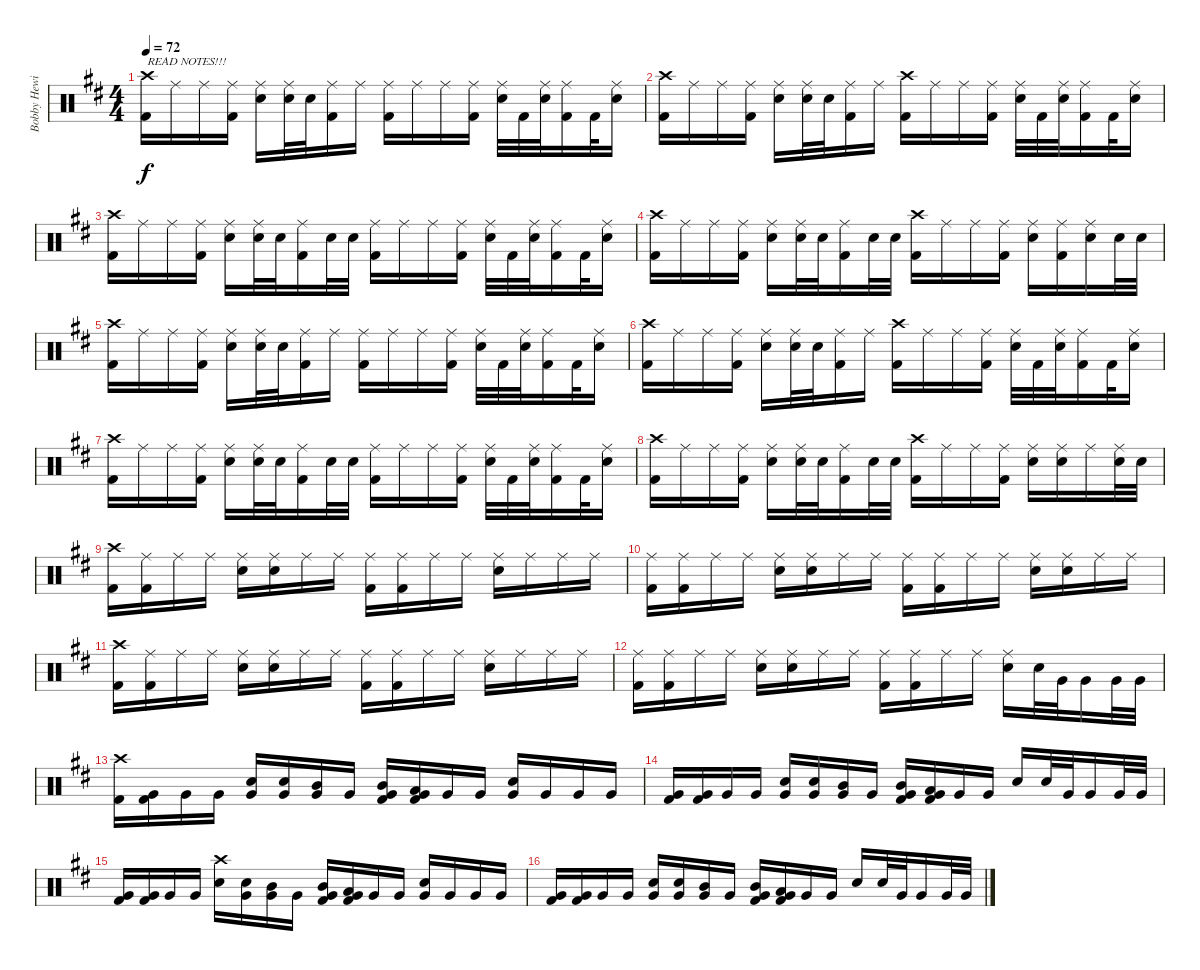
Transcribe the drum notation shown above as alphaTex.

\track ("Bobby Hewitt (Roland V-Drums)" "Bobby Hewi") {instrument percussion}
\staff {score}
\articulation defaults
\ts (4 4)
\tempo 72
\clef neutral
\ks d
("Crash high (hit)" "Kick (hit) 2").16{txt "READ NOTES!!!" dy f} "Ride (middle)".16 "Ride (middle)".16 ("Ride (middle)" "Kick (hit) 2").16 ("Ride (middle)" "Electric Snare (hit)").16 ("Ride (middle)" "Electric Snare (hit)").32 "Electric Snare (hit)".32 ("Ride (middle)" "Kick (hit) 2").16 "Ride (middle)".16 ("Ride (middle)" "Kick (hit) 2").16 "Ride (middle)".16 "Ride (middle)".16 ("Ride (middle)" "Kick (hit) 2").16 ("Ride (middle)" "Electric Snare (hit)").32 "Kick (hit) 2".32 ("Ride (middle)" "Electric Snare (hit)").32 ("Ride (middle)" "Kick (hit) 2").16 "Kick (hit) 2".32 ("Ride (middle)" "Electric Snare (hit)").16 |
("Crash high (hit)" "Kick (hit) 2").16 "Ride (middle)".16 "Ride (middle)".16 ("Ride (middle)" "Kick (hit) 2").16 ("Ride (middle)" "Electric Snare (hit)").16 ("Ride (middle)" "Electric Snare (hit)").32 "Electric Snare (hit)".32 ("Ride (middle)" "Kick (hit) 2").16 "Ride (middle)".16 ("Crash high (hit)" "Kick (hit) 2").16 "Ride (middle)".16 "Ride (middle)".16 ("Ride (middle)" "Kick (hit) 2").16 ("Ride (middle)" "Electric Snare (hit)").32 "Kick (hit) 2".32 ("Ride (middle)" "Electric Snare (hit)").32 ("Ride (middle)" "Kick (hit) 2").16 "Kick (hit) 2".32 ("Ride (middle)" "Electric Snare (hit)").16 |
("Crash high (hit)" "Kick (hit) 2").16 "Ride (middle)".16 "Ride (middle)".16 ("Ride (middle)" "Kick (hit) 2").16 ("Ride (middle)" "Electric Snare (hit)").16 ("Ride (middle)" "Electric Snare (hit)").32 "Electric Snare (hit)".32 ("Ride (middle)" "Kick (hit) 2").16 "Electric Snare (hit)".32 "Electric Snare (hit)".32 ("Ride (middle)" "Kick (hit) 2").16 "Ride (middle)".16 "Ride (middle)".16 ("Ride (middle)" "Kick (hit) 2").16 ("Ride (middle)" "Electric Snare (hit)").32 "Kick (hit) 2".32 ("Ride (middle)" "Electric Snare (hit)").32 ("Ride (middle)" "Kick (hit) 2").16 "Kick (hit) 2".32 ("Ride (middle)" "Electric Snare (hit)").16 |
("Crash high (hit)" "Kick (hit) 2").16 "Ride (middle)".16 "Ride (middle)".16 ("Ride (middle)" "Kick (hit) 2").16 ("Ride (middle)" "Electric Snare (hit)").16 ("Ride (middle)" "Electric Snare (hit)").32 "Electric Snare (hit)".32 ("Ride (middle)" "Kick (hit) 2").16 "Electric Snare (hit)".32 "Electric Snare (hit)".32 ("Crash high (hit)" "Kick (hit) 2").16 "Ride (middle)".16 "Ride (middle)".16 ("Ride (middle)" "Kick (hit) 2").16 ("Ride (middle)" "Electric Snare (hit)").16 ("Ride (middle)" "Kick (hit) 2").16 ("Ride (middle)" "Electric Snare (hit)").16 "Electric Snare (hit)".32 "Electric Snare (hit)".32 |
("Crash high (hit)" "Kick (hit) 2").16 "Ride (middle)".16 "Ride (middle)".16 ("Ride (middle)" "Kick (hit) 2").16 ("Ride (middle)" "Electric Snare (hit)").16 ("Ride (middle)" "Electric Snare (hit)").32 "Electric Snare (hit)".32 ("Ride (middle)" "Kick (hit) 2").16 "Ride (middle)".16 ("Ride (middle)" "Kick (hit) 2").16 "Ride (middle)".16 "Ride (middle)".16 ("Ride (middle)" "Kick (hit) 2").16 ("Ride (middle)" "Electric Snare (hit)").32 "Kick (hit) 2".32 ("Ride (middle)" "Electric Snare (hit)").32 ("Ride (middle)" "Kick (hit) 2").16 "Kick (hit) 2".32 ("Ride (middle)" "Electric Snare (hit)").16 |
("Crash high (hit)" "Kick (hit) 2").16 "Ride (middle)".16 "Ride (middle)".16 ("Ride (middle)" "Kick (hit) 2").16 ("Ride (middle)" "Electric Snare (hit)").16 ("Ride (middle)" "Electric Snare (hit)").32 "Electric Snare (hit)".32 ("Ride (middle)" "Kick (hit) 2").16 "Ride (middle)".16 ("Crash high (hit)" "Kick (hit) 2").16 "Ride (middle)".16 "Ride (middle)".16 ("Ride (middle)" "Kick (hit) 2").16 ("Ride (middle)" "Electric Snare (hit)").32 "Kick (hit) 2".32 ("Ride (middle)" "Electric Snare (hit)").32 ("Ride (middle)" "Kick (hit) 2").16 "Kick (hit) 2".32 ("Ride (middle)" "Electric Snare (hit)").16 |
("Crash high (hit)" "Kick (hit) 2").16 "Ride (middle)".16 "Ride (middle)".16 ("Ride (middle)" "Kick (hit) 2").16 ("Ride (middle)" "Electric Snare (hit)").16 ("Ride (middle)" "Electric Snare (hit)").32 "Electric Snare (hit)".32 ("Ride (middle)" "Kick (hit) 2").16 "Electric Snare (hit)".32 "Electric Snare (hit)".32 ("Ride (middle)" "Kick (hit) 2").16 "Ride (middle)".16 "Ride (middle)".16 ("Ride (middle)" "Kick (hit) 2").16 ("Ride (middle)" "Electric Snare (hit)").32 "Kick (hit) 2".32 ("Ride (middle)" "Electric Snare (hit)").32 ("Ride (middle)" "Kick (hit) 2").16 "Kick (hit) 2".32 ("Ride (middle)" "Electric Snare (hit)").16 |
("Crash high (hit)" "Kick (hit) 2").16 "Ride (middle)".16 "Ride (middle)".16 ("Ride (middle)" "Kick (hit) 2").16 ("Ride (middle)" "Electric Snare (hit)").16 ("Ride (middle)" "Electric Snare (hit)").32 "Electric Snare (hit)".32 ("Ride (middle)" "Kick (hit) 2").16 "Electric Snare (hit)".32 "Electric Snare (hit)".32 ("Crash high (hit)" "Kick (hit) 2").16 "Ride (middle)".16 "Ride (middle)".16 ("Ride (middle)" "Kick (hit) 2").16 ("Ride (middle)" "Electric Snare (hit)").16 ("Ride (middle)" "Electric Snare (hit)").16 "Ride (middle)".16 ("Ride (middle)" "Electric Snare (hit)").32 "Electric Snare (hit)".32 |
("Crash high (hit)" "Kick (hit) 2").16 ("Ride (middle)" "Kick (hit) 2").16 "Ride (middle)".16 "Ride (middle)".16 ("Ride (middle)" "Electric Snare (hit)").16 ("Ride (middle)" "Electric Snare (hit)").16 "Ride (middle)".16 "Ride (middle)".16 ("Ride (middle)" "Kick (hit) 2").16 ("Ride (middle)" "Kick (hit) 2").16 "Ride (middle)".16 "Ride (middle)".16 ("Ride (middle)" "Electric Snare (hit)").16 "Ride (middle)".16 "Ride (middle)".16 "Ride (middle)".16 |
("Ride (middle)" "Kick (hit) 2").16 ("Ride (middle)" "Kick (hit) 2").16 "Ride (middle)".16 "Ride (middle)".16 ("Ride (middle)" "Electric Snare (hit)").16 ("Ride (middle)" "Electric Snare (hit)").16 "Ride (middle)".16 "Ride (middle)".16 ("Ride (middle)" "Kick (hit) 2").16 ("Ride (middle)" "Kick (hit) 2").16 "Ride (middle)".16 "Ride (middle)".16 ("Ride (middle)" "Electric Snare (hit)").16 ("Ride (middle)" "Electric Snare (hit)").16 "Ride (middle)".16 "Ride (middle)".16 |
("Crash high (hit)" "Kick (hit) 2").16 ("Ride (middle)" "Kick (hit) 2").16 "Ride (middle)".16 "Ride (middle)".16 ("Ride (middle)" "Electric Snare (hit)").16 ("Ride (middle)" "Electric Snare (hit)").16 "Ride (middle)".16 "Ride (middle)".16 ("Ride (middle)" "Kick (hit) 2").16 ("Ride (middle)" "Kick (hit) 2").16 "Ride (middle)".16 "Ride (middle)".16 ("Ride (middle)" "Electric Snare (hit)").16 "Ride (middle)".16 "Ride (middle)".16 "Ride (middle)".16 |
("Ride (middle)" "Kick (hit) 2").16 ("Ride (middle)" "Kick (hit) 2").16 "Ride (middle)".16 "Ride (middle)".16 ("Ride (middle)" "Electric Snare (hit)").16 ("Ride (middle)" "Electric Snare (hit)").16 "Ride (middle)".16 "Ride (middle)".16 ("Ride (middle)" "Kick (hit) 2").16 ("Ride (middle)" "Kick (hit) 2").16 "Ride (middle)".16 "Ride (middle)".16 ("Ride (middle)" "Electric Snare (hit)").16 "Electric Snare (hit)".32 "Very Low Tom (hit)".32 "Very Low Tom (hit)".16 "Very Low Tom (hit)".32 "Very Low Tom (hit)".32 |
("Crash high (hit)" "Kick (hit) 2").16 ("Very Low Tom (hit)" "Kick (hit) 2").16 "Very Low Tom (hit)".16 "Very Low Tom (hit)".16 ("Very Low Tom (hit)" "Electric Snare (hit)").16 ("Very Low Tom (hit)" "Electric Snare (hit)").16 ("Mid Tom (hit)" "Very Low Tom (hit)").16 "Very Low Tom (hit)".16 ("Mid Tom (hit)" "Very Low Tom (hit)" "Kick (hit) 2").16 ("Low Tom (hit)" "Very Low Tom (hit)" "Kick (hit) 2").16 "Very Low Tom (hit)".16 "Very Low Tom (hit)".16 ("Very Low Tom (hit)" "Electric Snare (hit)").16 "Very Low Tom (hit)".16 "Very Low Tom (hit)".16 "Very Low Tom (hit)".16 |
("Very Low Tom (hit)" "Kick (hit) 2").16 ("Very Low Tom (hit)" "Kick (hit) 2").16 "Very Low Tom (hit)".16 "Very Low Tom (hit)".16 ("Very Low Tom (hit)" "Electric Snare (hit)").16 ("Very Low Tom (hit)" "Electric Snare (hit)").16 ("Mid Tom (hit)" "Very Low Tom (hit)").16 "Very Low Tom (hit)".16 ("Mid Tom (hit)" "Very Low Tom (hit)" "Kick (hit) 2").16 ("Low Tom (hit)" "Very Low Tom (hit)" "Kick (hit) 2").16 "Very Low Tom (hit)".16 "Very Low Tom (hit)".16 "Electric Snare (hit)".16 "Electric Snare (hit)".32 "Very Low Tom (hit)".32 "Very Low Tom (hit)".16 "Very Low Tom (hit)".32 "Very Low Tom (hit)".32 |
("Very Low Tom (hit)" "Kick (hit) 2").16 ("Very Low Tom (hit)" "Kick (hit) 2").16 "Very Low Tom (hit)".16 "Very Low Tom (hit)".16 ("Crash high (hit)" "Electric Snare (hit)").16 ("Very Low Tom (hit)" "Electric Snare (hit)").16 ("Mid Tom (hit)" "Very Low Tom (hit)").16 "Very Low Tom (hit)".16 ("Mid Tom (hit)" "Very Low Tom (hit)" "Kick (hit) 2").16 ("Low Tom (hit)" "Very Low Tom (hit)" "Kick (hit) 2").16 "Very Low Tom (hit)".16 "Very Low Tom (hit)".16 ("Very Low Tom (hit)" "Electric Snare (hit)").16 "Very Low Tom (hit)".16 "Very Low Tom (hit)".16 "Very Low Tom (hit)".16 |
("Very Low Tom (hit)" "Kick (hit) 2").16 ("Very Low Tom (hit)" "Kick (hit) 2").16 "Very Low Tom (hit)".16 "Very Low Tom (hit)".16 ("Very Low Tom (hit)" "Electric Snare (hit)").16 ("Very Low Tom (hit)" "Electric Snare (hit)").16 ("Mid Tom (hit)" "Very Low Tom (hit)").16 "Very Low Tom (hit)".16 ("Mid Tom (hit)" "Very Low Tom (hit)" "Kick (hit) 2").16 ("Low Tom (hit)" "Very Low Tom (hit)" "Kick (hit) 2").16 "Very Low Tom (hit)".16 "Very Low Tom (hit)".16 "Electric Snare (hit)".16 "Electric Snare (hit)".32 "Very Low Tom (hit)".32 "Very Low Tom (hit)".16 "Very Low Tom (hit)".32 "Very Low Tom (hit)".32
